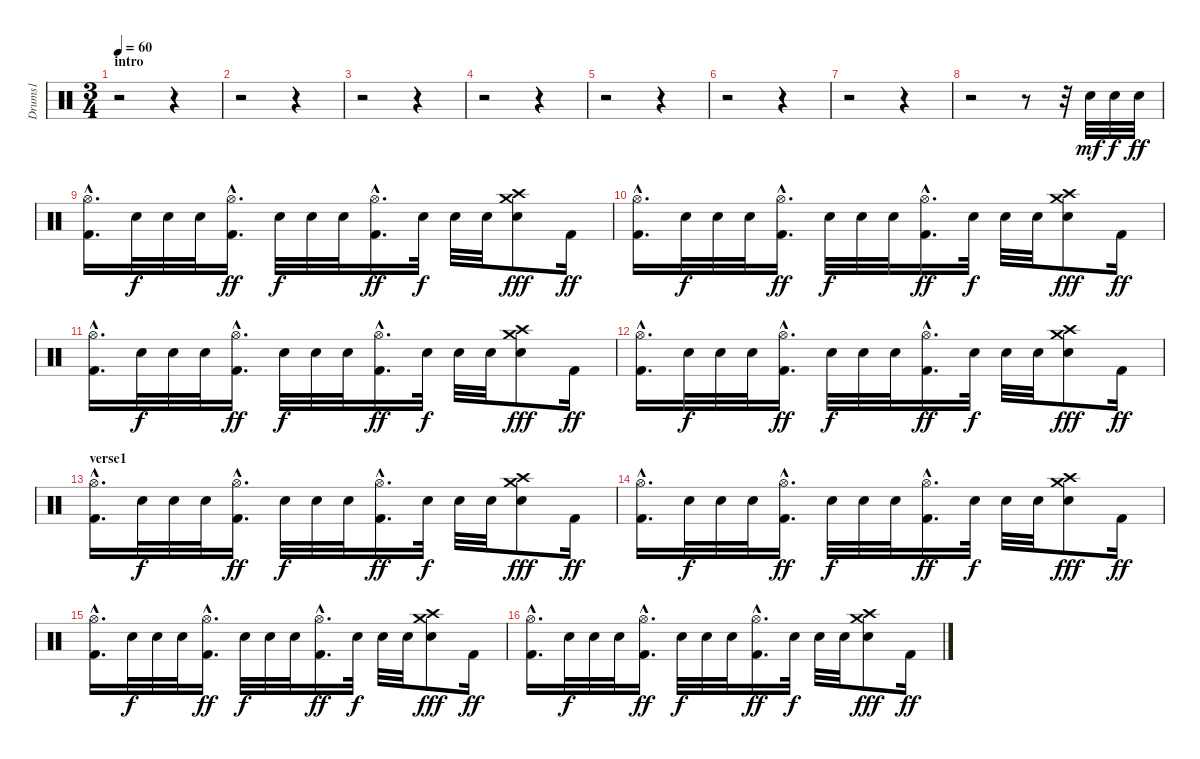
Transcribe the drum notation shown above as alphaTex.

\track ("Drums1" "Drums1") {instrument percussion}
\staff {score}
\articulation defaults
\ts (3 4)
\section ("" "intro")
\tempo 60
\clef neutral
\ks c
r.2{dy mf} r.4 |
r.2 r.4 |
r.2 r.4 |
r.2 r.4 |
r.2 r.4 |
r.2 r.4 |
r.2 r.4 |
r.2 r.8 r.32 "Electric Snare (hit)".32 "Electric Snare (hit)".32{dy f} "Electric Snare (hit)".32{dy ff} |
("Hi-Hat (open)"{hac} "Kick (hit) 2"{hac}).16{d} "Electric Snare (hit)".32{dy f} "Electric Snare (hit)".32 "Electric Snare (hit)".32 ("Hi-Hat (open)"{hac} "Kick (hit) 2"{hac}).16{d dy ff} "Electric Snare (hit)".32{dy f} "Electric Snare (hit)".32 "Electric Snare (hit)".32 ("Hi-Hat (open)"{hac} "Kick (hit) 2"{hac}).16{d dy ff} "Electric Snare (hit)".32{dy f} "Electric Snare (hit)".32 "Electric Snare (hit)".32 ("Crash medium (hit)" "Electric Snare (hit)" "Crash high (hit)").8{dy fff} "Kick (hit) 2".16{dy ff} |
("Hi-Hat (open)"{hac} "Kick (hit) 2"{hac}).16{d} "Electric Snare (hit)".32{dy f} "Electric Snare (hit)".32 "Electric Snare (hit)".32 ("Hi-Hat (open)"{hac} "Kick (hit) 2"{hac}).16{d dy ff} "Electric Snare (hit)".32{dy f} "Electric Snare (hit)".32 "Electric Snare (hit)".32 ("Hi-Hat (open)"{hac} "Kick (hit) 2"{hac}).16{d dy ff} "Electric Snare (hit)".32{dy f} "Electric Snare (hit)".32 "Electric Snare (hit)".32 ("Crash medium (hit)" "Electric Snare (hit)" "Crash high (hit)").8{dy fff} "Kick (hit) 2".16{dy ff} |
("Hi-Hat (open)"{hac} "Kick (hit) 2"{hac}).16{d} "Electric Snare (hit)".32{dy f} "Electric Snare (hit)".32 "Electric Snare (hit)".32 ("Hi-Hat (open)"{hac} "Kick (hit) 2"{hac}).16{d dy ff} "Electric Snare (hit)".32{dy f} "Electric Snare (hit)".32 "Electric Snare (hit)".32 ("Hi-Hat (open)"{hac} "Kick (hit) 2"{hac}).16{d dy ff} "Electric Snare (hit)".32{dy f} "Electric Snare (hit)".32 "Electric Snare (hit)".32 ("Crash medium (hit)" "Electric Snare (hit)" "Crash high (hit)").8{dy fff} "Kick (hit) 2".16{dy ff} |
("Hi-Hat (open)"{hac} "Kick (hit) 2"{hac}).16{d} "Electric Snare (hit)".32{dy f} "Electric Snare (hit)".32 "Electric Snare (hit)".32 ("Hi-Hat (open)"{hac} "Kick (hit) 2"{hac}).16{d dy ff} "Electric Snare (hit)".32{dy f} "Electric Snare (hit)".32 "Electric Snare (hit)".32 ("Hi-Hat (open)"{hac} "Kick (hit) 2"{hac}).16{d dy ff} "Electric Snare (hit)".32{dy f} "Electric Snare (hit)".32 "Electric Snare (hit)".32 ("Crash medium (hit)" "Electric Snare (hit)" "Crash high (hit)").8{dy fff} "Kick (hit) 2".16{dy ff} |
\section ("" "verse1")
("Hi-Hat (open)"{hac} "Kick (hit) 2"{hac}).16{d} "Electric Snare (hit)".32{dy f} "Electric Snare (hit)".32 "Electric Snare (hit)".32 ("Hi-Hat (open)"{hac} "Kick (hit) 2"{hac}).16{d dy ff} "Electric Snare (hit)".32{dy f} "Electric Snare (hit)".32 "Electric Snare (hit)".32 ("Hi-Hat (open)"{hac} "Kick (hit) 2"{hac}).16{d dy ff} "Electric Snare (hit)".32{dy f} "Electric Snare (hit)".32 "Electric Snare (hit)".32 ("Crash medium (hit)" "Electric Snare (hit)" "Crash high (hit)").8{dy fff} "Kick (hit) 2".16{dy ff} |
("Hi-Hat (open)"{hac} "Kick (hit) 2"{hac}).16{d} "Electric Snare (hit)".32{dy f} "Electric Snare (hit)".32 "Electric Snare (hit)".32 ("Hi-Hat (open)"{hac} "Kick (hit) 2"{hac}).16{d dy ff} "Electric Snare (hit)".32{dy f} "Electric Snare (hit)".32 "Electric Snare (hit)".32 ("Hi-Hat (open)"{hac} "Kick (hit) 2"{hac}).16{d dy ff} "Electric Snare (hit)".32{dy f} "Electric Snare (hit)".32 "Electric Snare (hit)".32 ("Crash medium (hit)" "Electric Snare (hit)" "Crash high (hit)").8{dy fff} "Kick (hit) 2".16{dy ff} |
("Hi-Hat (open)"{hac} "Kick (hit) 2"{hac}).16{d} "Electric Snare (hit)".32{dy f} "Electric Snare (hit)".32 "Electric Snare (hit)".32 ("Hi-Hat (open)"{hac} "Kick (hit) 2"{hac}).16{d dy ff} "Electric Snare (hit)".32{dy f} "Electric Snare (hit)".32 "Electric Snare (hit)".32 ("Hi-Hat (open)"{hac} "Kick (hit) 2"{hac}).16{d dy ff} "Electric Snare (hit)".32{dy f} "Electric Snare (hit)".32 "Electric Snare (hit)".32 ("Crash medium (hit)" "Electric Snare (hit)" "Crash high (hit)").8{dy fff} "Kick (hit) 2".16{dy ff} |
("Hi-Hat (open)"{hac} "Kick (hit) 2"{hac}).16{d} "Electric Snare (hit)".32{dy f} "Electric Snare (hit)".32 "Electric Snare (hit)".32 ("Hi-Hat (open)"{hac} "Kick (hit) 2"{hac}).16{d dy ff} "Electric Snare (hit)".32{dy f} "Electric Snare (hit)".32 "Electric Snare (hit)".32 ("Hi-Hat (open)"{hac} "Kick (hit) 2"{hac}).16{d dy ff} "Electric Snare (hit)".32{dy f} "Electric Snare (hit)".32 "Electric Snare (hit)".32 ("Crash medium (hit)" "Electric Snare (hit)" "Crash high (hit)").8{dy fff} "Kick (hit) 2".16{dy ff}
